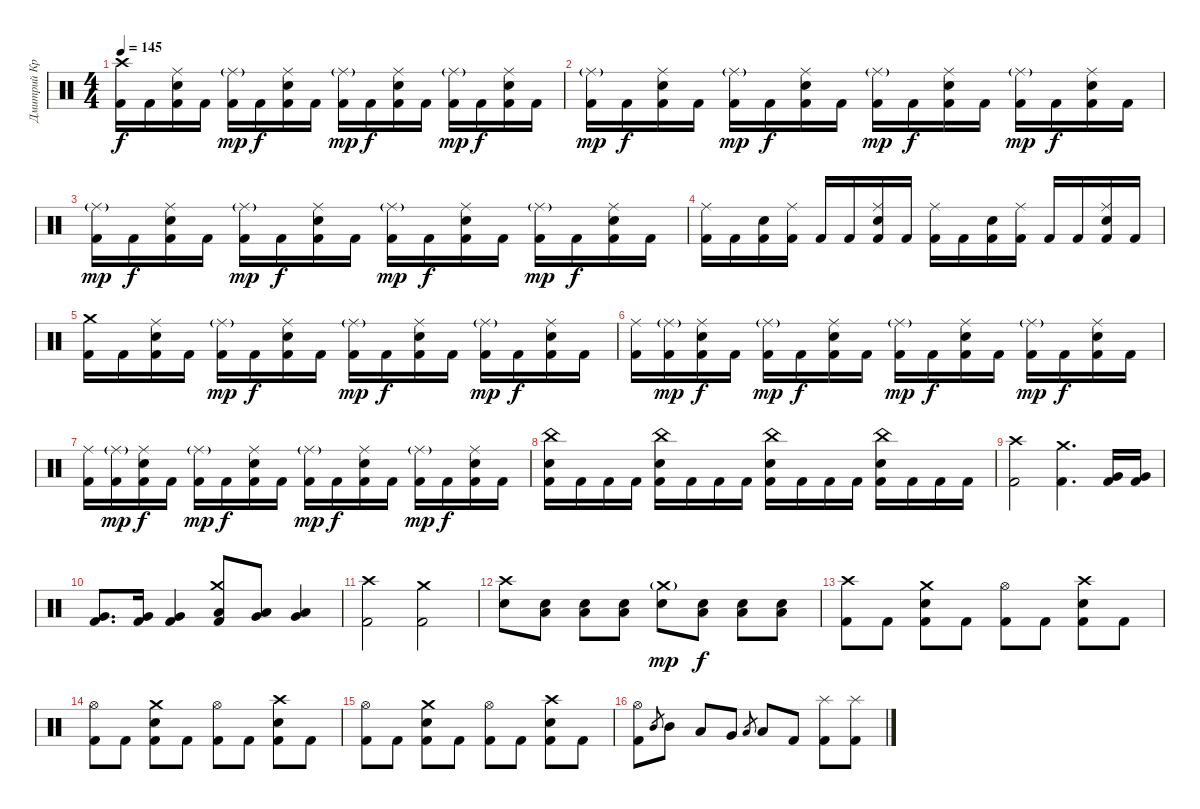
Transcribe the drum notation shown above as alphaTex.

\track ("Дмитрий Кривенков" "Дмитрий Кр") {instrument percussion}
\staff {score}
\articulation defaults
\ts (4 4)
\tempo 145
\clef neutral
\ks c
("Crash high (hit)" "Kick (hit) 2").16{dy f} "Kick (hit) 2".16 ("Ride (middle)" "Electric Snare (hit)" "Kick (hit) 2").16 "Kick (hit) 2".16 ("Ride (middle)"{g} "Kick (hit) 2").16{dy mp} "Kick (hit) 2".16{dy f} ("Ride (middle)" "Electric Snare (hit)" "Kick (hit) 2").16 "Kick (hit) 2".16 ("Ride (middle)"{g} "Kick (hit) 2").16{dy mp} "Kick (hit) 2".16{dy f} ("Ride (middle)" "Electric Snare (hit)" "Kick (hit) 2").16 "Kick (hit) 2".16 ("Ride (middle)"{g} "Kick (hit) 2").16{dy mp} "Kick (hit) 2".16{dy f} ("Ride (middle)" "Electric Snare (hit)" "Kick (hit) 2").16 "Kick (hit) 2".16 |
("Ride (middle)"{g} "Kick (hit) 2").16{dy mp} "Kick (hit) 2".16{dy f} ("Ride (middle)" "Electric Snare (hit)" "Kick (hit) 2").16 "Kick (hit) 2".16 ("Ride (middle)"{g} "Kick (hit) 2").16{dy mp} "Kick (hit) 2".16{dy f} ("Ride (middle)" "Electric Snare (hit)" "Kick (hit) 2").16 "Kick (hit) 2".16 ("Ride (middle)"{g} "Kick (hit) 2").16{dy mp} "Kick (hit) 2".16{dy f} ("Ride (middle)" "Electric Snare (hit)" "Kick (hit) 2").16 "Kick (hit) 2".16 ("Ride (middle)"{g} "Kick (hit) 2").16{dy mp} "Kick (hit) 2".16{dy f} ("Ride (middle)" "Electric Snare (hit)" "Kick (hit) 2").16 "Kick (hit) 2".16 |
("Ride (middle)"{g} "Kick (hit) 2").16{dy mp} "Kick (hit) 2".16{dy f} ("Ride (middle)" "Electric Snare (hit)" "Kick (hit) 2").16 "Kick (hit) 2".16 ("Ride (middle)"{g} "Kick (hit) 2").16{dy mp} "Kick (hit) 2".16{dy f} ("Ride (middle)" "Electric Snare (hit)" "Kick (hit) 2").16 "Kick (hit) 2".16 ("Ride (middle)"{g} "Kick (hit) 2").16{dy mp} "Kick (hit) 2".16{dy f} ("Ride (middle)" "Electric Snare (hit)" "Kick (hit) 2").16 "Kick (hit) 2".16 ("Ride (middle)"{g} "Kick (hit) 2").16{dy mp} "Kick (hit) 2".16{dy f} ("Ride (middle)" "Electric Snare (hit)" "Kick (hit) 2").16 "Kick (hit) 2".16 |
("Ride (middle)" "Kick (hit) 2").16 "Kick (hit) 2".16 ("Electric Snare (hit)" "Kick (hit) 2").16 ("Ride (middle)" "Kick (hit) 2").16 "Kick (hit) 2".16 "Kick (hit) 2".16 ("Ride (middle)" "Electric Snare (hit)" "Kick (hit) 2").16 "Kick (hit) 2".16 ("Ride (middle)" "Kick (hit) 2").16 "Kick (hit) 2".16 ("Electric Snare (hit)" "Kick (hit) 2").16 ("Ride (middle)" "Kick (hit) 2").16 "Kick (hit) 2".16 "Kick (hit) 2".16 ("Ride (middle)" "Electric Snare (hit)" "Kick (hit) 2").16 "Kick (hit) 2".16 |
("Crash medium (hit)" "Kick (hit) 2").16 "Kick (hit) 2".16 ("Ride (middle)" "Electric Snare (hit)" "Kick (hit) 2").16 "Kick (hit) 2".16 ("Ride (middle)"{g} "Kick (hit) 2").16{dy mp} "Kick (hit) 2".16{dy f} ("Ride (middle)" "Electric Snare (hit)" "Kick (hit) 2").16 "Kick (hit) 2".16 ("Ride (middle)"{g} "Kick (hit) 2").16{dy mp} "Kick (hit) 2".16{dy f} ("Ride (middle)" "Electric Snare (hit)" "Kick (hit) 2").16 "Kick (hit) 2".16 ("Ride (middle)"{g} "Kick (hit) 2").16{dy mp} "Kick (hit) 2".16{dy f} ("Ride (middle)" "Electric Snare (hit)" "Kick (hit) 2").16 "Kick (hit) 2".16 |
("Ride (middle)" "Kick (hit) 2").16 ("Ride (middle)"{g} "Kick (hit) 2").16{dy mp} ("Ride (middle)" "Electric Snare (hit)" "Kick (hit) 2").16{dy f} "Kick (hit) 2".16 ("Ride (middle)"{g} "Kick (hit) 2").16{dy mp} "Kick (hit) 2".16{dy f} ("Ride (middle)" "Electric Snare (hit)" "Kick (hit) 2").16 "Kick (hit) 2".16 ("Ride (middle)"{g} "Kick (hit) 2").16{dy mp} "Kick (hit) 2".16{dy f} ("Ride (middle)" "Electric Snare (hit)" "Kick (hit) 2").16 "Kick (hit) 2".16 ("Ride (middle)"{g} "Kick (hit) 2").16{dy mp} "Kick (hit) 2".16{dy f} ("Ride (middle)" "Electric Snare (hit)" "Kick (hit) 2").16 "Kick (hit) 2".16 |
("Ride (middle)" "Kick (hit) 2").16 ("Ride (middle)"{g} "Kick (hit) 2").16{dy mp} ("Ride (middle)" "Electric Snare (hit)" "Kick (hit) 2").16{dy f} "Kick (hit) 2".16 ("Ride (middle)"{g} "Kick (hit) 2").16{dy mp} "Kick (hit) 2".16{dy f} ("Ride (middle)" "Electric Snare (hit)" "Kick (hit) 2").16 "Kick (hit) 2".16 ("Ride (middle)"{g} "Kick (hit) 2").16{dy mp} "Kick (hit) 2".16{dy f} ("Ride (middle)" "Electric Snare (hit)" "Kick (hit) 2").16 "Kick (hit) 2".16 ("Ride (middle)"{g} "Kick (hit) 2").16{dy mp} "Kick (hit) 2".16{dy f} ("Ride (middle)" "Electric Snare (hit)" "Kick (hit) 2").16 "Kick (hit) 2".16 |
("China (hit)" "Electric Snare (hit)" "Kick (hit) 2").16 "Kick (hit) 2".16 "Kick (hit) 2".16 "Kick (hit) 2".16 ("China (hit)" "Electric Snare (hit)" "Kick (hit) 2").16 "Kick (hit) 2".16 "Kick (hit) 2".16 "Kick (hit) 2".16 ("China (hit)" "Electric Snare (hit)" "Kick (hit) 2").16 "Kick (hit) 2".16 "Kick (hit) 2".16 "Kick (hit) 2".16 ("China (hit)" "Electric Snare (hit)" "Kick (hit) 2").16 "Kick (hit) 2".16 "Kick (hit) 2".16 "Kick (hit) 2".16 |
("Crash high (hit)" "Kick (hit) 2").2 ("Crash medium (hit)" "Kick (hit) 2").4{d} ("Very Low Tom (hit)" "Kick (hit) 2").16 ("Very Low Tom (hit)" "Kick (hit) 2").16 |
("Very Low Tom (hit)" "Kick (hit) 2").8{d} ("Very Low Tom (hit)" "Kick (hit) 2").16 ("Very Low Tom (hit)" "Kick (hit) 2").4 ("Crash medium (hit)" "Low Floor Tom (hit)" "Kick (hit) 2").8 ("Very Low Tom (hit)" "Low Floor Tom (hit)").8 ("Very Low Tom (hit)" "Low Floor Tom (hit)").4 |
("Crash high (hit)" "Kick (hit) 2").2 ("Crash medium (hit)" "Kick (hit) 2").2 |
("Crash high (hit)" "Electric Snare (hit)").8 ("Electric Snare (hit)" "Low Floor Tom (hit)").8 ("Electric Snare (hit)" "Low Floor Tom (hit)").8 ("Electric Snare (hit)" "Low Floor Tom (hit)").8 ("Crash medium (hit)"{g} "Electric Snare (hit)").8{dy mp} ("Electric Snare (hit)" "Low Floor Tom (hit)").8{dy f} ("Electric Snare (hit)" "Low Floor Tom (hit)").8 ("Electric Snare (hit)" "Low Floor Tom (hit)").8 |
("Crash high (hit)" "Kick (hit) 2").8 "Kick (hit) 2".8 ("Crash medium (hit)" "Electric Snare (hit)" "Kick (hit) 2").8 "Kick (hit) 2".8 ("Hi-Hat (open)" "Kick (hit) 2").8 "Kick (hit) 2".8 ("Crash high (hit)" "Electric Snare (hit)" "Kick (hit) 2").8 "Kick (hit) 2".8 |
("Hi-Hat (open)" "Kick (hit) 2").8 "Kick (hit) 2".8 ("Crash medium (hit)" "Electric Snare (hit)" "Kick (hit) 2").8 "Kick (hit) 2".8 ("Hi-Hat (open)" "Kick (hit) 2").8 "Kick (hit) 2".8 ("Crash high (hit)" "Electric Snare (hit)" "Kick (hit) 2").8 "Kick (hit) 2".8 |
("Hi-Hat (open)" "Kick (hit) 2").8 "Kick (hit) 2".8 ("Crash medium (hit)" "Electric Snare (hit)" "Kick (hit) 2").8 "Kick (hit) 2".8 ("Hi-Hat (open)" "Kick (hit) 2").8 "Kick (hit) 2".8 ("Crash high (hit)" "Electric Snare (hit)" "Kick (hit) 2").8 "Kick (hit) 2".8 |
("Hi-Hat (open)" "Kick (hit) 2").8 "Mid Tom (hit)".8{gr} "Mid Tom (hit)".8 "Low Tom (hit)".8 "Very Low Tom (hit)".8 "Low Tom (hit)".8{gr} "Low Tom (hit)".8 "Kick (hit) 2".8 ("Splash (hit)" "Kick (hit) 2").8 ("Splash (hit)" "Kick (hit) 2").8
